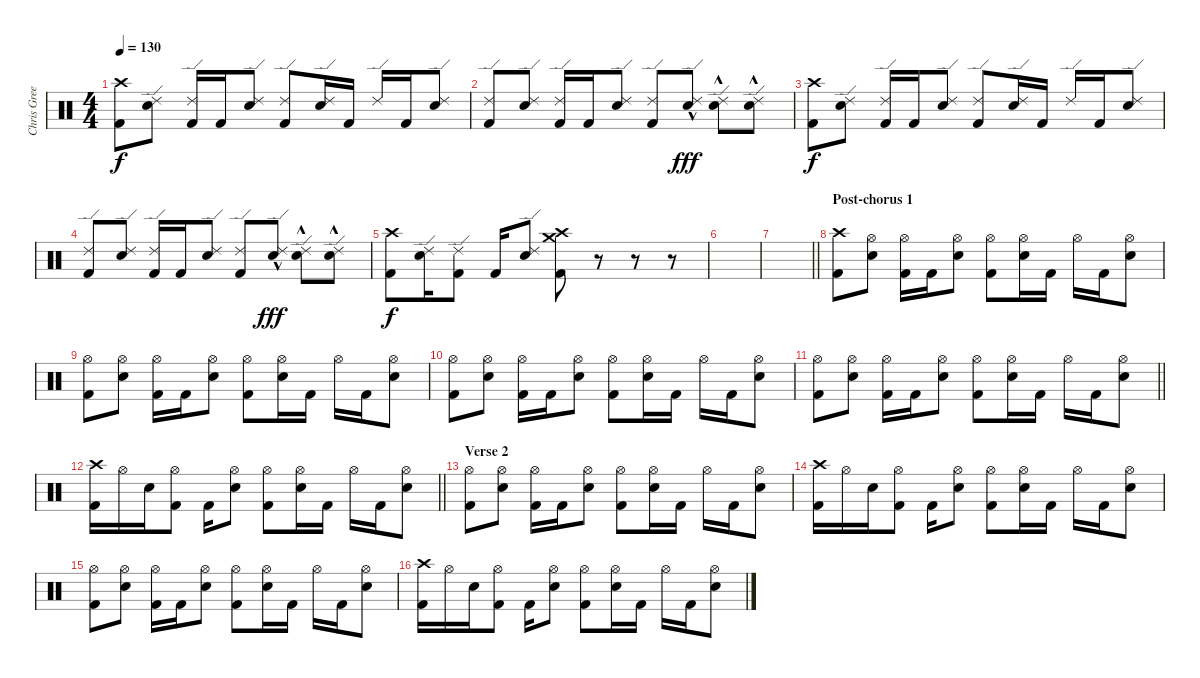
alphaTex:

\track ("Chris Greer - Drums" "Chris Gree") {instrument percussion}
\staff {score}
\articulation defaults
\ts (4 4)
\tempo 130
\clef neutral
\ks c
("Crash high (hit)" "Kick (hit) 2").8{dy f} ("Ride (edge) 2" "Electric Snare (hit)").8 ("Ride (edge) 2" "Kick (hit) 2").16 "Kick (hit) 2".16 ("Ride (edge) 2" "Electric Snare (hit)").8 ("Ride (edge) 2" "Kick (hit) 2").8 ("Ride (edge) 2" "Electric Snare (hit)").16 "Kick (hit) 2".16 "Ride (edge) 2".16 "Kick (hit) 2".16 ("Ride (edge) 2" "Electric Snare (hit)").8 |
("Ride (edge) 2" "Kick (hit) 2").8 ("Ride (edge) 2" "Electric Snare (hit)").8 ("Ride (edge) 2" "Kick (hit) 2").16 "Kick (hit) 2".16 ("Ride (edge) 2" "Electric Snare (hit)").8 ("Ride (edge) 2" "Kick (hit) 2").8 ("Ride (edge) 2" "Electric Snare (hit)"{hac}).8{dy fff} ("Ride (edge) 2" "Electric Snare (hit)"{hac}).8 ("Ride (edge) 2" "Electric Snare (hit)"{hac}).8 |
("Crash high (hit)" "Kick (hit) 2").8{dy f} ("Ride (edge) 2" "Electric Snare (hit)").8 ("Ride (edge) 2" "Kick (hit) 2").16 "Kick (hit) 2".16 ("Ride (edge) 2" "Electric Snare (hit)").8 ("Ride (edge) 2" "Kick (hit) 2").8 ("Ride (edge) 2" "Electric Snare (hit)").16 "Kick (hit) 2".16 "Ride (edge) 2".16 "Kick (hit) 2".16 ("Ride (edge) 2" "Electric Snare (hit)").8 |
("Ride (edge) 2" "Kick (hit) 2").8 ("Ride (edge) 2" "Electric Snare (hit)").8 ("Ride (edge) 2" "Kick (hit) 2").16 "Kick (hit) 2".16 ("Ride (edge) 2" "Electric Snare (hit)").8 ("Ride (edge) 2" "Kick (hit) 2").8 ("Ride (edge) 2" "Electric Snare (hit)"{hac}).8{dy fff} ("Ride (edge) 2" "Electric Snare (hit)"{hac}).8 ("Ride (edge) 2" "Electric Snare (hit)"{hac}).8 |
("Crash high (hit)" "Kick (hit) 2").8{dy f} ("Ride (edge) 2" "Electric Snare (hit)").16 ("Ride (edge) 2" "Kick (hit) 2").8 "Kick (hit) 2".16 ("Ride (edge) 2" "Electric Snare (hit)").8 ("Crash high (hit)" "Crash medium (hit)" "Kick (hit) 2").8 r.8 r.8 r.8 |
|
\barLineRight lightlight
|
\section ("" "Post-chorus 1")
("Crash high (hit)" "Kick (hit) 2").8 ("Hi-Hat (open)" "Electric Snare (hit)").8 ("Hi-Hat (open)" "Kick (hit) 2").16 "Kick (hit) 2".16 ("Hi-Hat (open)" "Electric Snare (hit)").8 ("Hi-Hat (open)" "Kick (hit) 2").8 ("Hi-Hat (open)" "Electric Snare (hit)").16 "Kick (hit) 2".16 "Hi-Hat (open)".16 "Kick (hit) 2".16 ("Hi-Hat (open)" "Electric Snare (hit)").8 |
("Hi-Hat (open)" "Kick (hit) 2").8 ("Hi-Hat (open)" "Electric Snare (hit)").8 ("Hi-Hat (open)" "Kick (hit) 2").16 "Kick (hit) 2".16 ("Hi-Hat (open)" "Electric Snare (hit)").8 ("Hi-Hat (open)" "Kick (hit) 2").8 ("Hi-Hat (open)" "Electric Snare (hit)").16 "Kick (hit) 2".16 "Hi-Hat (open)".16 "Kick (hit) 2".16 ("Hi-Hat (open)" "Electric Snare (hit)").8 |
("Hi-Hat (open)" "Kick (hit) 2").8 ("Hi-Hat (open)" "Electric Snare (hit)").8 ("Hi-Hat (open)" "Kick (hit) 2").16 "Kick (hit) 2".16 ("Hi-Hat (open)" "Electric Snare (hit)").8 ("Hi-Hat (open)" "Kick (hit) 2").8 ("Hi-Hat (open)" "Electric Snare (hit)").16 "Kick (hit) 2".16 "Hi-Hat (open)".16 "Kick (hit) 2".16 ("Hi-Hat (open)" "Electric Snare (hit)").8 |
\barLineRight lightlight
("Hi-Hat (open)" "Kick (hit) 2").8 ("Hi-Hat (open)" "Electric Snare (hit)").8 ("Hi-Hat (open)" "Kick (hit) 2").16 "Kick (hit) 2".16 ("Hi-Hat (open)" "Electric Snare (hit)").8 ("Hi-Hat (open)" "Kick (hit) 2").8 ("Hi-Hat (open)" "Electric Snare (hit)").16 "Kick (hit) 2".16 "Hi-Hat (open)".16 "Kick (hit) 2".16 ("Hi-Hat (open)" "Electric Snare (hit)").8 |
\barLineRight lightlight
("Crash high (hit)" "Kick (hit) 2").16 "Hi-Hat (open)".16 "Electric Snare (hit)".16 ("Hi-Hat (open)" "Kick (hit) 2").8 "Kick (hit) 2".16 ("Hi-Hat (open)" "Electric Snare (hit)").8 ("Hi-Hat (open)" "Kick (hit) 2").8 ("Hi-Hat (open)" "Electric Snare (hit)").16 "Kick (hit) 2".16 "Hi-Hat (open)".16 "Kick (hit) 2".16 ("Hi-Hat (open)" "Electric Snare (hit)").8 |
\section ("" "Verse 2")
("Hi-Hat (open)" "Kick (hit) 2").8 ("Hi-Hat (open)" "Electric Snare (hit)").8 ("Hi-Hat (open)" "Kick (hit) 2").16 "Kick (hit) 2".16 ("Hi-Hat (open)" "Electric Snare (hit)").8 ("Hi-Hat (open)" "Kick (hit) 2").8 ("Hi-Hat (open)" "Electric Snare (hit)").16 "Kick (hit) 2".16 "Hi-Hat (open)".16 "Kick (hit) 2".16 ("Hi-Hat (open)" "Electric Snare (hit)").8 |
("Crash high (hit)" "Kick (hit) 2").16 "Hi-Hat (open)".16 "Electric Snare (hit)".16 ("Hi-Hat (open)" "Kick (hit) 2").8 "Kick (hit) 2".16 ("Hi-Hat (open)" "Electric Snare (hit)").8 ("Hi-Hat (open)" "Kick (hit) 2").8 ("Hi-Hat (open)" "Electric Snare (hit)").16 "Kick (hit) 2".16 "Hi-Hat (open)".16 "Kick (hit) 2".16 ("Hi-Hat (open)" "Electric Snare (hit)").8 |
("Hi-Hat (open)" "Kick (hit) 2").8 ("Hi-Hat (open)" "Electric Snare (hit)").8 ("Hi-Hat (open)" "Kick (hit) 2").16 "Kick (hit) 2".16 ("Hi-Hat (open)" "Electric Snare (hit)").8 ("Hi-Hat (open)" "Kick (hit) 2").8 ("Hi-Hat (open)" "Electric Snare (hit)").16 "Kick (hit) 2".16 "Hi-Hat (open)".16 "Kick (hit) 2".16 ("Hi-Hat (open)" "Electric Snare (hit)").8 |
("Crash high (hit)" "Kick (hit) 2").16 "Hi-Hat (open)".16 "Electric Snare (hit)".16 ("Hi-Hat (open)" "Kick (hit) 2").8 "Kick (hit) 2".16 ("Hi-Hat (open)" "Electric Snare (hit)").8 ("Hi-Hat (open)" "Kick (hit) 2").8 ("Hi-Hat (open)" "Electric Snare (hit)").16 "Kick (hit) 2".16 "Hi-Hat (open)".16 "Kick (hit) 2".16 ("Hi-Hat (open)" "Electric Snare (hit)").8
